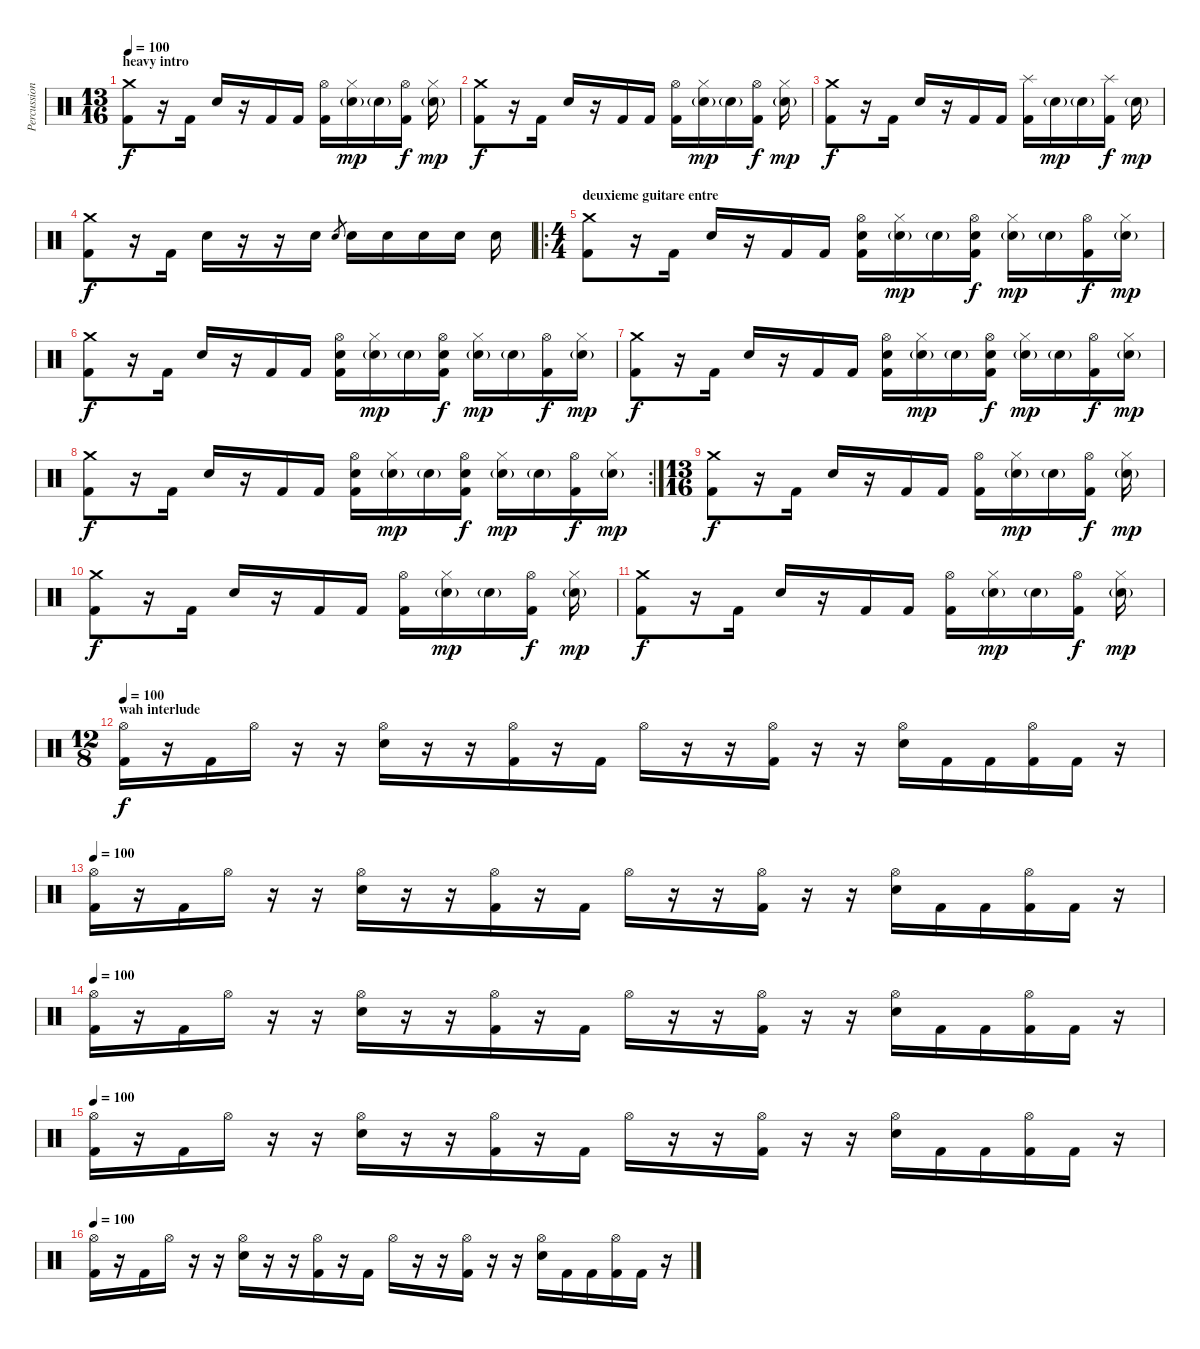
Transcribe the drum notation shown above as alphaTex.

\track ("Percussions" "Percussion") {instrument percussion}
\staff {score}
\articulation defaults
\ts (13 16)
\section ("" "heavy intro")
\tempo 100
\clef neutral
\ks c
("Crash medium (hit)" "Kick (hit) 2").8{dy f} r.16 "Kick (hit) 2".16 "Electric Snare (hit)".16 r.16 "Kick (hit) 2".16 "Kick (hit) 2".16 ("Hi-Hat (open)" "Kick (hit) 2").16 ("Hi-Hat (closed)" "Electric Snare (hit)"{g}).16{dy mp} "Electric Snare (hit)"{g}.16 ("Hi-Hat (open)" "Kick (hit) 2").16{dy f} ("Hi-Hat (closed)" "Electric Snare (hit)"{g}).16{dy mp} |
("Crash medium (hit)" "Kick (hit) 2").8{dy f} r.16 "Kick (hit) 2".16 "Electric Snare (hit)".16 r.16 "Kick (hit) 2".16 "Kick (hit) 2".16 ("Hi-Hat (open)" "Kick (hit) 2").16 ("Hi-Hat (closed)" "Electric Snare (hit)"{g}).16{dy mp} "Electric Snare (hit)"{g}.16 ("Hi-Hat (open)" "Kick (hit) 2").16{dy f} ("Hi-Hat (closed)" "Electric Snare (hit)"{g}).16{dy mp} |
("Crash medium (hit)" "Kick (hit) 2").8{dy f} r.16 "Kick (hit) 2".16 "Electric Snare (hit)".16 r.16 "Kick (hit) 2".16 "Kick (hit) 2".16 ("Splash (hit)" "Kick (hit) 2").16 "Electric Snare (hit)"{g}.16{dy mp} "Electric Snare (hit)"{g}.16 ("Splash (hit)" "Kick (hit) 2").16{dy f} "Electric Snare (hit)"{g}.16{dy mp} |
("Crash medium (hit)" "Kick (hit) 2").8{dy f} r.16 "Kick (hit) 2".16 "Electric Snare (hit)".16 r.16 r.16 "Electric Snare (hit)".16 "Electric Snare (hit)".8{gr} "Electric Snare (hit)".16 "Electric Snare (hit)".16 "Electric Snare (hit)".16 "Electric Snare (hit)".16 "Electric Snare (hit)".16 |
\ro
\ts (4 4)
\section ("" "deuxieme guitare entre")
("Crash medium (hit)" "Kick (hit) 2").8 r.16 "Kick (hit) 2".16 "Electric Snare (hit)".16 r.16 "Kick (hit) 2".16 "Kick (hit) 2".16 ("Hi-Hat (open)" "Electric Snare (hit)" "Kick (hit) 2").16 ("Hi-Hat (closed)" "Electric Snare (hit)"{g}).16{dy mp} "Electric Snare (hit)"{g}.16 ("Hi-Hat (open)" "Electric Snare (hit)" "Kick (hit) 2").16{dy f} ("Hi-Hat (closed)" "Electric Snare (hit)"{g}).16{dy mp} "Electric Snare (hit)"{g}.16 ("Hi-Hat (open)" "Kick (hit) 2").16{dy f} ("Hi-Hat (closed)" "Electric Snare (hit)"{g}).16{dy mp} |
("Crash medium (hit)" "Kick (hit) 2").8{dy f} r.16 "Kick (hit) 2".16 "Electric Snare (hit)".16 r.16 "Kick (hit) 2".16 "Kick (hit) 2".16 ("Hi-Hat (open)" "Electric Snare (hit)" "Kick (hit) 2").16 ("Hi-Hat (closed)" "Electric Snare (hit)"{g}).16{dy mp} "Electric Snare (hit)"{g}.16 ("Hi-Hat (open)" "Electric Snare (hit)" "Kick (hit) 2").16{dy f} ("Hi-Hat (closed)" "Electric Snare (hit)"{g}).16{dy mp} "Electric Snare (hit)"{g}.16 ("Hi-Hat (open)" "Kick (hit) 2").16{dy f} ("Hi-Hat (closed)" "Electric Snare (hit)"{g}).16{dy mp} |
("Crash medium (hit)" "Kick (hit) 2").8{dy f} r.16 "Kick (hit) 2".16 "Electric Snare (hit)".16 r.16 "Kick (hit) 2".16 "Kick (hit) 2".16 ("Hi-Hat (open)" "Electric Snare (hit)" "Kick (hit) 2").16 ("Hi-Hat (closed)" "Electric Snare (hit)"{g}).16{dy mp} "Electric Snare (hit)"{g}.16 ("Hi-Hat (open)" "Electric Snare (hit)" "Kick (hit) 2").16{dy f} ("Hi-Hat (closed)" "Electric Snare (hit)"{g}).16{dy mp} "Electric Snare (hit)"{g}.16 ("Hi-Hat (open)" "Kick (hit) 2").16{dy f} ("Hi-Hat (closed)" "Electric Snare (hit)"{g}).16{dy mp} |
\rc 2
("Crash medium (hit)" "Kick (hit) 2").8{dy f} r.16 "Kick (hit) 2".16 "Electric Snare (hit)".16 r.16 "Kick (hit) 2".16 "Kick (hit) 2".16 ("Hi-Hat (open)" "Electric Snare (hit)" "Kick (hit) 2").16 ("Hi-Hat (closed)" "Electric Snare (hit)"{g}).16{dy mp} "Electric Snare (hit)"{g}.16 ("Hi-Hat (open)" "Electric Snare (hit)" "Kick (hit) 2").16{dy f} ("Hi-Hat (closed)" "Electric Snare (hit)"{g}).16{dy mp} "Electric Snare (hit)"{g}.16 ("Hi-Hat (open)" "Kick (hit) 2").16{dy f} ("Hi-Hat (closed)" "Electric Snare (hit)"{g}).16{dy mp} |
\ts (13 16)
("Crash medium (hit)" "Kick (hit) 2").8{dy f} r.16 "Kick (hit) 2".16 "Electric Snare (hit)".16 r.16 "Kick (hit) 2".16 "Kick (hit) 2".16 ("Hi-Hat (open)" "Kick (hit) 2").16 ("Hi-Hat (closed)" "Electric Snare (hit)"{g}).16{dy mp} "Electric Snare (hit)"{g}.16 ("Hi-Hat (open)" "Kick (hit) 2").16{dy f} ("Hi-Hat (closed)" "Electric Snare (hit)"{g}).16{dy mp} |
("Crash medium (hit)" "Kick (hit) 2").8{dy f} r.16 "Kick (hit) 2".16 "Electric Snare (hit)".16 r.16 "Kick (hit) 2".16 "Kick (hit) 2".16 ("Hi-Hat (open)" "Kick (hit) 2").16 ("Hi-Hat (closed)" "Electric Snare (hit)"{g}).16{dy mp} "Electric Snare (hit)"{g}.16 ("Hi-Hat (open)" "Kick (hit) 2").16{dy f} ("Hi-Hat (closed)" "Electric Snare (hit)"{g}).16{dy mp} |
("Crash medium (hit)" "Kick (hit) 2").8{dy f} r.16 "Kick (hit) 2".16 "Electric Snare (hit)".16 r.16 "Kick (hit) 2".16 "Kick (hit) 2".16 ("Hi-Hat (open)" "Kick (hit) 2").16 ("Hi-Hat (closed)" "Electric Snare (hit)"{g}).16{dy mp} "Electric Snare (hit)"{g}.16 ("Hi-Hat (open)" "Kick (hit) 2").16{dy f} ("Hi-Hat (closed)" "Electric Snare (hit)"{g}).16{dy mp} |
\ts (12 8)
\section ("" "wah interlude")
\tempo 100
("Hi-Hat (open)" "Kick (hit) 2").16{dy f} r.16 "Kick (hit) 2".16 "Hi-Hat (open)".16 r.16 r.16 ("Hi-Hat (open)" "Electric Snare (hit)").16 r.16 r.16 ("Hi-Hat (open)" "Kick (hit) 2").16 r.16 "Kick (hit) 2".16 "Hi-Hat (open)".16 r.16 r.16 ("Hi-Hat (open)" "Kick (hit) 2").16 r.16 r.16 ("Hi-Hat (open)" "Electric Snare (hit)").16 "Kick (hit) 2".16 "Kick (hit) 2".16 ("Hi-Hat (open)" "Kick (hit) 2").16 "Kick (hit) 2".16 r.16 |
\tempo 100
("Hi-Hat (open)" "Kick (hit) 2").16 r.16 "Kick (hit) 2".16 "Hi-Hat (open)".16 r.16 r.16 ("Hi-Hat (open)" "Electric Snare (hit)").16 r.16 r.16 ("Hi-Hat (open)" "Kick (hit) 2").16 r.16 "Kick (hit) 2".16 "Hi-Hat (open)".16 r.16 r.16 ("Hi-Hat (open)" "Kick (hit) 2").16 r.16 r.16 ("Hi-Hat (open)" "Electric Snare (hit)").16 "Kick (hit) 2".16 "Kick (hit) 2".16 ("Hi-Hat (open)" "Kick (hit) 2").16 "Kick (hit) 2".16 r.16 |
\tempo 100
("Hi-Hat (open)" "Kick (hit) 2").16 r.16 "Kick (hit) 2".16 "Hi-Hat (open)".16 r.16 r.16 ("Hi-Hat (open)" "Electric Snare (hit)").16 r.16 r.16 ("Hi-Hat (open)" "Kick (hit) 2").16 r.16 "Kick (hit) 2".16 "Hi-Hat (open)".16 r.16 r.16 ("Hi-Hat (open)" "Kick (hit) 2").16 r.16 r.16 ("Hi-Hat (open)" "Electric Snare (hit)").16 "Kick (hit) 2".16 "Kick (hit) 2".16 ("Hi-Hat (open)" "Kick (hit) 2").16 "Kick (hit) 2".16 r.16 |
\tempo 100
("Hi-Hat (open)" "Kick (hit) 2").16 r.16 "Kick (hit) 2".16 "Hi-Hat (open)".16 r.16 r.16 ("Hi-Hat (open)" "Electric Snare (hit)").16 r.16 r.16 ("Hi-Hat (open)" "Kick (hit) 2").16 r.16 "Kick (hit) 2".16 "Hi-Hat (open)".16 r.16 r.16 ("Hi-Hat (open)" "Kick (hit) 2").16 r.16 r.16 ("Hi-Hat (open)" "Electric Snare (hit)").16 "Kick (hit) 2".16 "Kick (hit) 2".16 ("Hi-Hat (open)" "Kick (hit) 2").16 "Kick (hit) 2".16 r.16 |
\tempo 100
("Hi-Hat (open)" "Kick (hit) 2").16 r.16 "Kick (hit) 2".16 "Hi-Hat (open)".16 r.16 r.16 ("Hi-Hat (open)" "Electric Snare (hit)").16 r.16 r.16 ("Hi-Hat (open)" "Kick (hit) 2").16 r.16 "Kick (hit) 2".16 "Hi-Hat (open)".16 r.16 r.16 ("Hi-Hat (open)" "Kick (hit) 2").16 r.16 r.16 ("Hi-Hat (open)" "Electric Snare (hit)").16 "Kick (hit) 2".16 "Kick (hit) 2".16 ("Hi-Hat (open)" "Kick (hit) 2").16 "Kick (hit) 2".16 r.16
